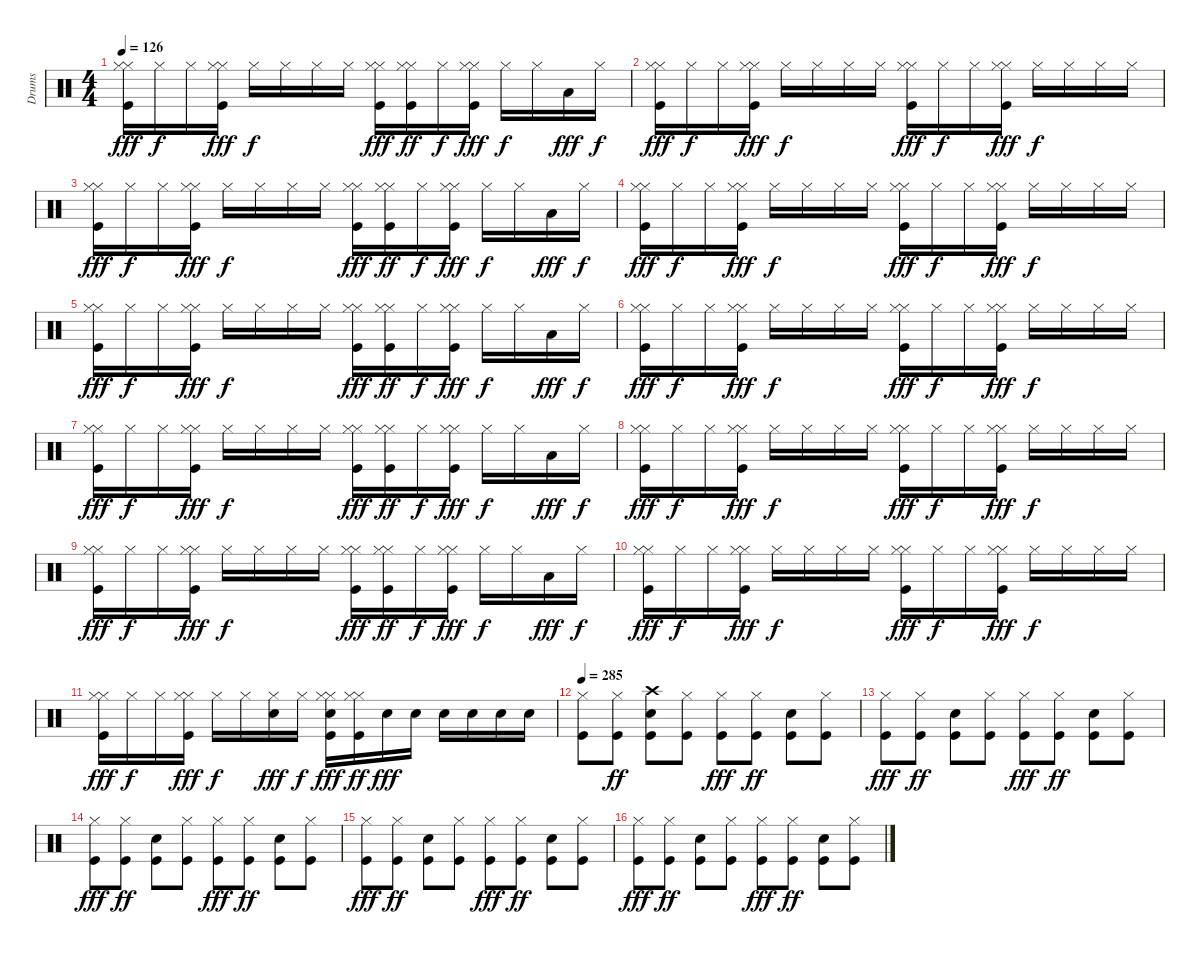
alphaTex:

\track ("Drums" "Drums") {instrument percussion}
\staff {score}
\articulation defaults
\ts (4 4)
\tempo 126
\clef neutral
\ks c
("Hi-Hat (closed)" "Hi-Hat (closed)" "Kick (hit)").16{dy fff} "Hi-Hat (closed)".16{dy f} "Hi-Hat (closed)".16 ("Hi-Hat (closed)" "Hi-Hat (closed)" "Kick (hit)").16{dy fff} "Hi-Hat (closed)".16{dy f} "Hi-Hat (closed)".16 "Hi-Hat (closed)".16 "Hi-Hat (closed)".16 ("Hi-Hat (closed)" "Hi-Hat (closed)" "Kick (hit)").16{dy fff} ("Hi-Hat (closed)" "Hi-Hat (closed)" "Kick (hit)").16{dy ff} "Hi-Hat (closed)".16{dy f} ("Hi-Hat (closed)" "Hi-Hat (closed)" "Kick (hit)").16{dy fff} "Hi-Hat (closed)".16{dy f} "Hi-Hat (closed)".16 "Low Floor Tom (hit)".16{dy fff} "Hi-Hat (closed)".16{dy f} |
("Hi-Hat (closed)" "Hi-Hat (closed)" "Kick (hit)").16{dy fff} "Hi-Hat (closed)".16{dy f} "Hi-Hat (closed)".16 ("Hi-Hat (closed)" "Hi-Hat (closed)" "Kick (hit)").16{dy fff} "Hi-Hat (closed)".16{dy f} "Hi-Hat (closed)".16 "Hi-Hat (closed)".16 "Hi-Hat (closed)".16 ("Hi-Hat (closed)" "Hi-Hat (closed)" "Kick (hit)").16{dy fff} "Hi-Hat (closed)".16{dy f} "Hi-Hat (closed)".16 ("Hi-Hat (closed)" "Hi-Hat (closed)" "Kick (hit)").16{dy fff} "Hi-Hat (closed)".16{dy f} "Hi-Hat (closed)".16 "Hi-Hat (closed)".16 "Hi-Hat (closed)".16 |
("Hi-Hat (closed)" "Hi-Hat (closed)" "Kick (hit)").16{dy fff} "Hi-Hat (closed)".16{dy f} "Hi-Hat (closed)".16 ("Hi-Hat (closed)" "Hi-Hat (closed)" "Kick (hit)").16{dy fff} "Hi-Hat (closed)".16{dy f} "Hi-Hat (closed)".16 "Hi-Hat (closed)".16 "Hi-Hat (closed)".16 ("Hi-Hat (closed)" "Hi-Hat (closed)" "Kick (hit)").16{dy fff} ("Hi-Hat (closed)" "Hi-Hat (closed)" "Kick (hit)").16{dy ff} "Hi-Hat (closed)".16{dy f} ("Hi-Hat (closed)" "Hi-Hat (closed)" "Kick (hit)").16{dy fff} "Hi-Hat (closed)".16{dy f} "Hi-Hat (closed)".16 "Low Floor Tom (hit)".16{dy fff} "Hi-Hat (closed)".16{dy f} |
("Hi-Hat (closed)" "Hi-Hat (closed)" "Kick (hit)").16{dy fff} "Hi-Hat (closed)".16{dy f} "Hi-Hat (closed)".16 ("Hi-Hat (closed)" "Hi-Hat (closed)" "Kick (hit)").16{dy fff} "Hi-Hat (closed)".16{dy f} "Hi-Hat (closed)".16 "Hi-Hat (closed)".16 "Hi-Hat (closed)".16 ("Hi-Hat (closed)" "Hi-Hat (closed)" "Kick (hit)").16{dy fff} "Hi-Hat (closed)".16{dy f} "Hi-Hat (closed)".16 ("Hi-Hat (closed)" "Hi-Hat (closed)" "Kick (hit)").16{dy fff} "Hi-Hat (closed)".16{dy f} "Hi-Hat (closed)".16 "Hi-Hat (closed)".16 "Hi-Hat (closed)".16 |
("Hi-Hat (closed)" "Hi-Hat (closed)" "Kick (hit)").16{dy fff} "Hi-Hat (closed)".16{dy f} "Hi-Hat (closed)".16 ("Hi-Hat (closed)" "Hi-Hat (closed)" "Kick (hit)").16{dy fff} "Hi-Hat (closed)".16{dy f} "Hi-Hat (closed)".16 "Hi-Hat (closed)".16 "Hi-Hat (closed)".16 ("Hi-Hat (closed)" "Hi-Hat (closed)" "Kick (hit)").16{dy fff} ("Hi-Hat (closed)" "Hi-Hat (closed)" "Kick (hit)").16{dy ff} "Hi-Hat (closed)".16{dy f} ("Hi-Hat (closed)" "Hi-Hat (closed)" "Kick (hit)").16{dy fff} "Hi-Hat (closed)".16{dy f} "Hi-Hat (closed)".16 "Low Floor Tom (hit)".16{dy fff} "Hi-Hat (closed)".16{dy f} |
("Hi-Hat (closed)" "Hi-Hat (closed)" "Kick (hit)").16{dy fff} "Hi-Hat (closed)".16{dy f} "Hi-Hat (closed)".16 ("Hi-Hat (closed)" "Hi-Hat (closed)" "Kick (hit)").16{dy fff} "Hi-Hat (closed)".16{dy f} "Hi-Hat (closed)".16 "Hi-Hat (closed)".16 "Hi-Hat (closed)".16 ("Hi-Hat (closed)" "Hi-Hat (closed)" "Kick (hit)").16{dy fff} "Hi-Hat (closed)".16{dy f} "Hi-Hat (closed)".16 ("Hi-Hat (closed)" "Hi-Hat (closed)" "Kick (hit)").16{dy fff} "Hi-Hat (closed)".16{dy f} "Hi-Hat (closed)".16 "Hi-Hat (closed)".16 "Hi-Hat (closed)".16 |
("Hi-Hat (closed)" "Hi-Hat (closed)" "Kick (hit)").16{dy fff} "Hi-Hat (closed)".16{dy f} "Hi-Hat (closed)".16 ("Hi-Hat (closed)" "Hi-Hat (closed)" "Kick (hit)").16{dy fff} "Hi-Hat (closed)".16{dy f} "Hi-Hat (closed)".16 "Hi-Hat (closed)".16 "Hi-Hat (closed)".16 ("Hi-Hat (closed)" "Hi-Hat (closed)" "Kick (hit)").16{dy fff} ("Hi-Hat (closed)" "Hi-Hat (closed)" "Kick (hit)").16{dy ff} "Hi-Hat (closed)".16{dy f} ("Hi-Hat (closed)" "Hi-Hat (closed)" "Kick (hit)").16{dy fff} "Hi-Hat (closed)".16{dy f} "Hi-Hat (closed)".16 "Low Floor Tom (hit)".16{dy fff} "Hi-Hat (closed)".16{dy f} |
("Hi-Hat (closed)" "Hi-Hat (closed)" "Kick (hit)").16{dy fff} "Hi-Hat (closed)".16{dy f} "Hi-Hat (closed)".16 ("Hi-Hat (closed)" "Hi-Hat (closed)" "Kick (hit)").16{dy fff} "Hi-Hat (closed)".16{dy f} "Hi-Hat (closed)".16 "Hi-Hat (closed)".16 "Hi-Hat (closed)".16 ("Hi-Hat (closed)" "Hi-Hat (closed)" "Kick (hit)").16{dy fff} "Hi-Hat (closed)".16{dy f} "Hi-Hat (closed)".16 ("Hi-Hat (closed)" "Hi-Hat (closed)" "Kick (hit)").16{dy fff} "Hi-Hat (closed)".16{dy f} "Hi-Hat (closed)".16 "Hi-Hat (closed)".16 "Hi-Hat (closed)".16 |
("Hi-Hat (closed)" "Hi-Hat (closed)" "Kick (hit)").16{dy fff} "Hi-Hat (closed)".16{dy f} "Hi-Hat (closed)".16 ("Hi-Hat (closed)" "Hi-Hat (closed)" "Kick (hit)").16{dy fff} "Hi-Hat (closed)".16{dy f} "Hi-Hat (closed)".16 "Hi-Hat (closed)".16 "Hi-Hat (closed)".16 ("Hi-Hat (closed)" "Hi-Hat (closed)" "Kick (hit)").16{dy fff} ("Hi-Hat (closed)" "Hi-Hat (closed)" "Kick (hit)").16{dy ff} "Hi-Hat (closed)".16{dy f} ("Hi-Hat (closed)" "Hi-Hat (closed)" "Kick (hit)").16{dy fff} "Hi-Hat (closed)".16{dy f} "Hi-Hat (closed)".16 "Low Floor Tom (hit)".16{dy fff} "Hi-Hat (closed)".16{dy f} |
("Hi-Hat (closed)" "Hi-Hat (closed)" "Kick (hit)").16{dy fff} "Hi-Hat (closed)".16{dy f} "Hi-Hat (closed)".16 ("Hi-Hat (closed)" "Hi-Hat (closed)" "Kick (hit)").16{dy fff} "Hi-Hat (closed)".16{dy f} "Hi-Hat (closed)".16 "Hi-Hat (closed)".16 "Hi-Hat (closed)".16 ("Hi-Hat (closed)" "Hi-Hat (closed)" "Kick (hit)").16{dy fff} "Hi-Hat (closed)".16{dy f} "Hi-Hat (closed)".16 ("Hi-Hat (closed)" "Hi-Hat (closed)" "Kick (hit)").16{dy fff} "Hi-Hat (closed)".16{dy f} "Hi-Hat (closed)".16 "Hi-Hat (closed)".16 "Hi-Hat (closed)".16 |
("Hi-Hat (closed)" "Hi-Hat (closed)" "Kick (hit)").16{dy fff} "Hi-Hat (closed)".16{dy f} "Hi-Hat (closed)".16 ("Hi-Hat (closed)" "Hi-Hat (closed)" "Kick (hit)").16{dy fff} "Hi-Hat (closed)".16{dy f} "Hi-Hat (closed)".16 ("Hi-Hat (closed)" "Snare (hit) 2").16{dy fff} "Hi-Hat (closed)".16{dy f} ("Hi-Hat (closed)" "Hi-Hat (closed)" "Snare (hit) 2" "Kick (hit)").16{dy fff} ("Hi-Hat (closed)" "Hi-Hat (closed)" "Kick (hit)").16{dy ff} "Snare (hit) 2".16{dy fff} "Snare (hit) 2".16 "Snare (hit) 2".16 "Snare (hit) 2".16 "Snare (hit) 2".16 "Snare (hit) 2".16 |
\tempo 285
("Hi-Hat (closed)" "Kick (hit)").8 ("Hi-Hat (closed)" "Kick (hit)").8{dy ff} ("Crash high (hit)" "Snare (hit) 2" "Kick (hit)").8 ("Hi-Hat (closed)" "Kick (hit)").8 ("Hi-Hat (closed)" "Kick (hit)").8{dy fff} ("Hi-Hat (closed)" "Kick (hit)").8{dy ff} ("Snare (hit) 2" "Kick (hit)").8 ("Hi-Hat (closed)" "Kick (hit)").8 |
("Hi-Hat (closed)" "Kick (hit)").8{dy fff} ("Hi-Hat (closed)" "Kick (hit)").8{dy ff} ("Snare (hit) 2" "Kick (hit)").8 ("Hi-Hat (closed)" "Kick (hit)").8 ("Hi-Hat (closed)" "Kick (hit)").8{dy fff} ("Hi-Hat (closed)" "Kick (hit)").8{dy ff} ("Snare (hit) 2" "Kick (hit)").8 ("Hi-Hat (closed)" "Kick (hit)").8 |
("Hi-Hat (closed)" "Kick (hit)").8{dy fff} ("Hi-Hat (closed)" "Kick (hit)").8{dy ff} ("Snare (hit) 2" "Kick (hit)").8 ("Hi-Hat (closed)" "Kick (hit)").8 ("Hi-Hat (closed)" "Kick (hit)").8{dy fff} ("Hi-Hat (closed)" "Kick (hit)").8{dy ff} ("Snare (hit) 2" "Kick (hit)").8 ("Hi-Hat (closed)" "Kick (hit)").8 |
("Hi-Hat (closed)" "Kick (hit)").8{dy fff} ("Hi-Hat (closed)" "Kick (hit)").8{dy ff} ("Snare (hit) 2" "Kick (hit)").8 ("Hi-Hat (closed)" "Kick (hit)").8 ("Hi-Hat (closed)" "Kick (hit)").8{dy fff} ("Hi-Hat (closed)" "Kick (hit)").8{dy ff} ("Snare (hit) 2" "Kick (hit)").8 ("Hi-Hat (closed)" "Kick (hit)").8 |
("Hi-Hat (closed)" "Kick (hit)").8{dy fff} ("Hi-Hat (closed)" "Kick (hit)").8{dy ff} ("Snare (hit) 2" "Kick (hit)").8 ("Hi-Hat (closed)" "Kick (hit)").8 ("Hi-Hat (closed)" "Kick (hit)").8{dy fff} ("Hi-Hat (closed)" "Kick (hit)").8{dy ff} ("Snare (hit) 2" "Kick (hit)").8 ("Hi-Hat (closed)" "Kick (hit)").8
